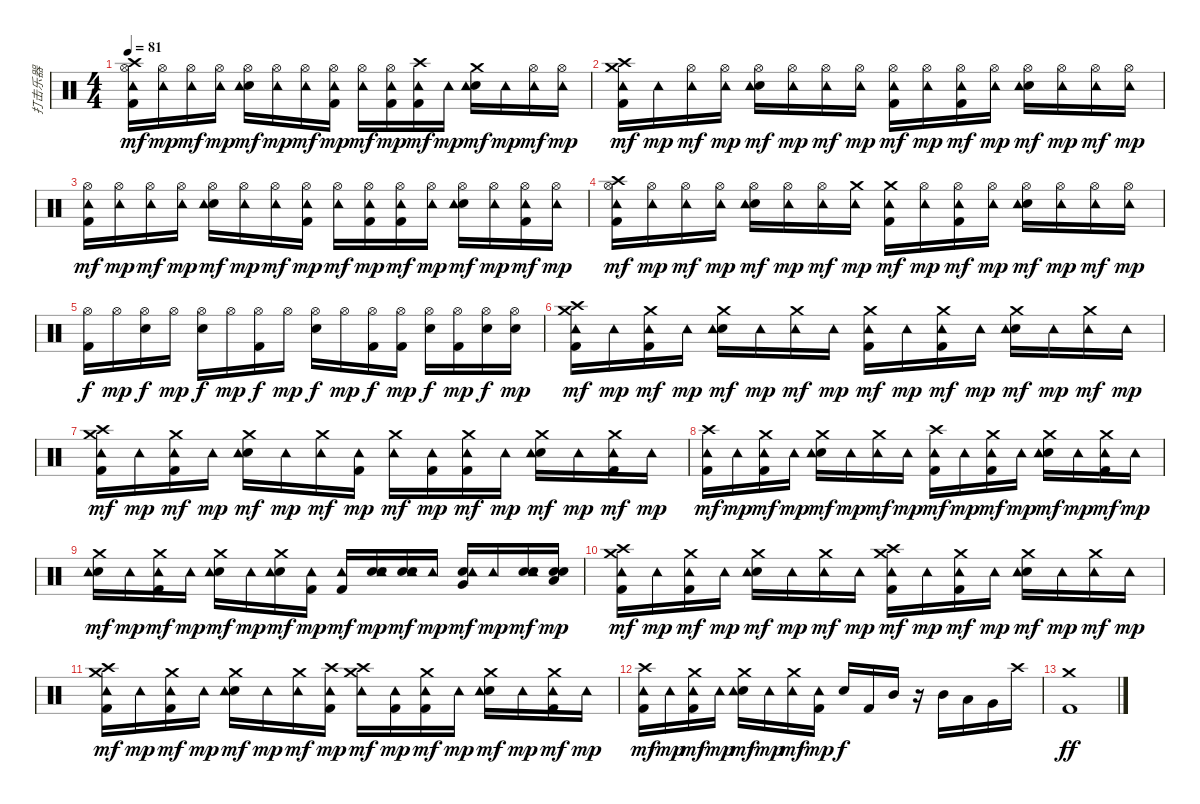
\track ("打击乐器" "打击乐器") {instrument percussion}
\staff {score}
\articulation defaults
\ts (4 4)
\tempo 81
\clef neutral
\ks c
("Crash high (hit)" "Hi-Hat (open)" "Tambourine (hit)" "Kick (hit) 2").16{dy mf} ("Hi-Hat (open)" "Tambourine (hit)").16{dy mp} ("Hi-Hat (open)" "Tambourine (hit)").16{dy mf} ("Hi-Hat (open)" "Tambourine (hit)").16{dy mp} ("Electric Snare (hit)" "Hi-Hat (open)" "Tambourine (hit)").16{dy mf} ("Hi-Hat (open)" "Tambourine (hit)").16{dy mp} ("Hi-Hat (open)" "Tambourine (hit)").16{dy mf} ("Hi-Hat (open)" "Tambourine (hit)" "Kick (hit) 2").16{dy mp} ("Hi-Hat (open)" "Tambourine (hit)").16{dy mf} ("Hi-Hat (open)" "Tambourine (hit)" "Kick (hit) 2").16{dy mp} ("Crash high (hit)" "Tambourine (hit)" "Kick (hit) 2").16{dy mf} "Tambourine (hit)".16{dy mp} ("Electric Snare (hit)" "Crash medium (hit)" "Tambourine (hit)").16{dy mf} "Tambourine (hit)".16{dy mp} ("Hi-Hat (open)" "Tambourine (hit)").16{dy mf} ("Hi-Hat (open)" "Tambourine (hit)").16{dy mp} |
("Crash high (hit)" "Crash medium (hit)" "Tambourine (hit)" "Kick (hit) 2").16{dy mf} "Tambourine (hit)".16{dy mp} ("Hi-Hat (open)" "Tambourine (hit)").16{dy mf} ("Hi-Hat (open)" "Tambourine (hit)").16{dy mp} ("Electric Snare (hit)" "Hi-Hat (open)" "Tambourine (hit)").16{dy mf} ("Hi-Hat (open)" "Tambourine (hit)").16{dy mp} ("Hi-Hat (open)" "Tambourine (hit)").16{dy mf} ("Hi-Hat (open)" "Tambourine (hit)").16{dy mp} ("Hi-Hat (open)" "Tambourine (hit)" "Kick (hit) 2").16{dy mf} ("Hi-Hat (open)" "Tambourine (hit)").16{dy mp} ("Hi-Hat (open)" "Tambourine (hit)" "Kick (hit) 2").16{dy mf} ("Hi-Hat (open)" "Tambourine (hit)").16{dy mp} ("Electric Snare (hit)" "Hi-Hat (open)" "Tambourine (hit)").16{dy mf} ("Hi-Hat (open)" "Tambourine (hit)").16{dy mp} ("Hi-Hat (open)" "Tambourine (hit)").16{dy mf} ("Hi-Hat (open)" "Tambourine (hit)").16{dy mp} |
("Hi-Hat (open)" "Tambourine (hit)" "Kick (hit) 2").16{dy mf} ("Hi-Hat (open)" "Tambourine (hit)").16{dy mp} ("Hi-Hat (open)" "Tambourine (hit)").16{dy mf} ("Hi-Hat (open)" "Tambourine (hit)").16{dy mp} ("Electric Snare (hit)" "Hi-Hat (open)" "Tambourine (hit)").16{dy mf} ("Hi-Hat (open)" "Tambourine (hit)").16{dy mp} ("Hi-Hat (open)" "Tambourine (hit)").16{dy mf} ("Hi-Hat (open)" "Tambourine (hit)" "Kick (hit) 2").16{dy mp} ("Hi-Hat (open)" "Tambourine (hit)").16{dy mf} ("Hi-Hat (open)" "Tambourine (hit)" "Kick (hit) 2").16{dy mp} ("Hi-Hat (open)" "Tambourine (hit)" "Kick (hit) 2").16{dy mf} ("Hi-Hat (open)" "Tambourine (hit)").16{dy mp} ("Electric Snare (hit)" "Hi-Hat (open)" "Tambourine (hit)").16{dy mf} ("Hi-Hat (open)" "Tambourine (hit)").16{dy mp} ("Hi-Hat (open)" "Tambourine (hit)" "Kick (hit) 2").16{dy mf} ("Hi-Hat (open)" "Tambourine (hit)").16{dy mp} |
("Crash high (hit)" "Hi-Hat (open)" "Tambourine (hit)" "Kick (hit) 2").16{dy mf} ("Hi-Hat (open)" "Tambourine (hit)").16{dy mp} ("Hi-Hat (open)" "Tambourine (hit)").16{dy mf} ("Hi-Hat (open)" "Tambourine (hit)").16{dy mp} ("Electric Snare (hit)" "Hi-Hat (open)" "Tambourine (hit)").16{dy mf} ("Hi-Hat (open)" "Tambourine (hit)").16{dy mp} ("Hi-Hat (open)" "Tambourine (hit)").16{dy mf} ("Crash medium (hit)" "Tambourine (hit)").16{dy mp} ("Crash medium (hit)" "Tambourine (hit)" "Kick (hit) 2").16{dy mf} ("Hi-Hat (open)" "Tambourine (hit)").16{dy mp} ("Hi-Hat (open)" "Tambourine (hit)" "Kick (hit) 2").16{dy mf} ("Hi-Hat (open)" "Tambourine (hit)").16{dy mp} ("Electric Snare (hit)" "Hi-Hat (open)" "Tambourine (hit)").16{dy mf} ("Hi-Hat (open)" "Tambourine (hit)").16{dy mp} ("Hi-Hat (open)" "Tambourine (hit)").16{dy mf} ("Hi-Hat (open)" "Tambourine (hit)").16{dy mp} |
("Hi-Hat (open)" "Kick (hit) 2").16{dy f} "Hi-Hat (open)".16{dy mp} ("Electric Snare (hit)" "Hi-Hat (open)").16{dy f} "Hi-Hat (open)".16{dy mp} ("Electric Snare (hit)" "Hi-Hat (open)").16{dy f} "Hi-Hat (open)".16{dy mp} ("Hi-Hat (open)" "Kick (hit) 2").16{dy f} "Hi-Hat (open)".16{dy mp} ("Electric Snare (hit)" "Hi-Hat (open)").16{dy f} "Hi-Hat (open)".16{dy mp} ("Hi-Hat (open)" "Kick (hit) 2").16{dy f} ("Hi-Hat (open)" "Kick (hit) 2").16{dy mp} ("Electric Snare (hit)" "Hi-Hat (open)").16{dy f} ("Hi-Hat (open)" "Kick (hit) 2").16{dy mp} ("Electric Snare (hit)" "Hi-Hat (open)").16{dy f} ("Electric Snare (hit)" "Hi-Hat (open)").16{dy mp} |
("Crash high (hit)" "Crash medium (hit)" "Tambourine (hit)" "Kick (hit) 2").16{dy mf} "Tambourine (hit)".16{dy mp} ("Crash medium (hit)" "Tambourine (hit)" "Kick (hit) 2").16{dy mf} "Tambourine (hit)".16{dy mp} ("Electric Snare (hit)" "Crash medium (hit)" "Tambourine (hit)").16{dy mf} "Tambourine (hit)".16{dy mp} ("Crash medium (hit)" "Tambourine (hit)").16{dy mf} "Tambourine (hit)".16{dy mp} ("Crash medium (hit)" "Tambourine (hit)" "Kick (hit) 2").16{dy mf} "Tambourine (hit)".16{dy mp} ("Crash medium (hit)" "Tambourine (hit)" "Kick (hit) 2").16{dy mf} "Tambourine (hit)".16{dy mp} ("Electric Snare (hit)" "Crash medium (hit)" "Tambourine (hit)").16{dy mf} "Tambourine (hit)".16{dy mp} ("Crash medium (hit)" "Tambourine (hit)").16{dy mf} "Tambourine (hit)".16{dy mp} |
("Crash high (hit)" "Crash medium (hit)" "Tambourine (hit)" "Kick (hit) 2").16{dy mf} "Tambourine (hit)".16{dy mp} ("Crash medium (hit)" "Tambourine (hit)" "Kick (hit) 2").16{dy mf} "Tambourine (hit)".16{dy mp} ("Electric Snare (hit)" "Crash medium (hit)" "Tambourine (hit)").16{dy mf} "Tambourine (hit)".16{dy mp} ("Crash medium (hit)" "Tambourine (hit)").16{dy mf} ("Tambourine (hit)" "Kick (hit) 2").16{dy mp} ("Crash medium (hit)" "Tambourine (hit)").16{dy mf} ("Tambourine (hit)" "Kick (hit) 2").16{dy mp} ("Crash medium (hit)" "Tambourine (hit)" "Kick (hit) 2").16{dy mf} "Tambourine (hit)".16{dy mp} ("Electric Snare (hit)" "Crash medium (hit)" "Tambourine (hit)").16{dy mf} "Tambourine (hit)".16{dy mp} ("Crash medium (hit)" "Tambourine (hit)" "Kick (hit) 2").16{dy mf} "Tambourine (hit)".16{dy mp} |
("Crash high (hit)" "Tambourine (hit)" "Kick (hit) 2").16{dy mf} "Tambourine (hit)".16{dy mp} ("Crash medium (hit)" "Tambourine (hit)" "Kick (hit) 2").16{dy mf} "Tambourine (hit)".16{dy mp} ("Electric Snare (hit)" "Crash medium (hit)" "Tambourine (hit)").16{dy mf} "Tambourine (hit)".16{dy mp} ("Crash medium (hit)" "Tambourine (hit)").16{dy mf} "Tambourine (hit)".16{dy mp} ("Crash high (hit)" "Tambourine (hit)" "Kick (hit) 2").16{dy mf} "Tambourine (hit)".16{dy mp} ("Crash medium (hit)" "Tambourine (hit)" "Kick (hit) 2").16{dy mf} "Tambourine (hit)".16{dy mp} ("Electric Snare (hit)" "Crash medium (hit)" "Tambourine (hit)").16{dy mf} "Tambourine (hit)".16{dy mp} ("Crash medium (hit)" "Tambourine (hit)" "Kick (hit) 2").16{dy mf} "Tambourine (hit)".16{dy mp} |
("Electric Snare (hit)" "Crash medium (hit)" "Tambourine (hit)").16{dy mf} "Tambourine (hit)".16{dy mp} ("Crash medium (hit)" "Tambourine (hit)" "Kick (hit) 2").16{dy mf} "Tambourine (hit)".16{dy mp} ("Electric Snare (hit)" "Crash medium (hit)" "Tambourine (hit)").16{dy mf} "Tambourine (hit)".16{dy mp} ("Electric Snare (hit)" "Crash medium (hit)" "Tambourine (hit)").16{dy mf} ("Tambourine (hit)" "Kick (hit) 2").16{dy mp} ("Tambourine (hit)" "Kick (hit) 2").16{dy mf} ("Electric Snare (hit)" "Electric Snare (hit)" "Tambourine (hit)").16{dy mp} ("Electric Snare (hit)" "Electric Snare (hit)" "Tambourine (hit)").16{dy mf} "Tambourine (hit)".16{dy mp} ("Electric Snare (hit)" "Very Low Tom (hit)" "Tambourine (hit)").16{dy mf} "Tambourine (hit)".16{dy mp} ("Electric Snare (hit)" "Electric Snare (hit)" "Tambourine (hit)").16{dy mf} ("Electric Snare (hit)" "Electric Snare (hit)" "Low Tom (hit)").16{dy mp} |
("Crash high (hit)" "Crash medium (hit)" "Tambourine (hit)" "Kick (hit) 2").16{dy mf} "Tambourine (hit)".16{dy mp} ("Crash medium (hit)" "Tambourine (hit)" "Kick (hit) 2").16{dy mf} "Tambourine (hit)".16{dy mp} ("Electric Snare (hit)" "Crash medium (hit)" "Tambourine (hit)").16{dy mf} "Tambourine (hit)".16{dy mp} ("Crash medium (hit)" "Tambourine (hit)").16{dy mf} "Tambourine (hit)".16{dy mp} ("Crash high (hit)" "Crash medium (hit)" "Tambourine (hit)" "Kick (hit) 2").16{dy mf} "Tambourine (hit)".16{dy mp} ("Crash medium (hit)" "Tambourine (hit)" "Kick (hit) 2").16{dy mf} "Tambourine (hit)".16{dy mp} ("Electric Snare (hit)" "Crash medium (hit)" "Tambourine (hit)").16{dy mf} "Tambourine (hit)".16{dy mp} ("Crash medium (hit)" "Tambourine (hit)").16{dy mf} "Tambourine (hit)".16{dy mp} |
("Crash high (hit)" "Crash medium (hit)" "Tambourine (hit)" "Kick (hit) 2").16{dy mf} "Tambourine (hit)".16{dy mp} ("Crash medium (hit)" "Tambourine (hit)" "Kick (hit) 2").16{dy mf} "Tambourine (hit)".16{dy mp} ("Electric Snare (hit)" "Crash medium (hit)" "Tambourine (hit)").16{dy mf} "Tambourine (hit)".16{dy mp} ("Crash medium (hit)" "Tambourine (hit)").16{dy mf} ("Crash high (hit)" "Tambourine (hit)" "Kick (hit) 2").16{dy mp} ("Crash high (hit)" "Crash medium (hit)" "Tambourine (hit)").16{dy mf} ("Tambourine (hit)" "Kick (hit) 2").16{dy mp} ("Crash medium (hit)" "Tambourine (hit)" "Kick (hit) 2").16{dy mf} "Tambourine (hit)".16{dy mp} ("Electric Snare (hit)" "Crash medium (hit)" "Tambourine (hit)").16{dy mf} "Tambourine (hit)".16{dy mp} ("Crash medium (hit)" "Tambourine (hit)" "Kick (hit) 2").16{dy mf} "Tambourine (hit)".16{dy mp} |
("Crash high (hit)" "Tambourine (hit)" "Kick (hit) 2").16{dy mf} "Tambourine (hit)".16{dy mp} ("Crash medium (hit)" "Tambourine (hit)" "Kick (hit) 2").16{dy mf} "Tambourine (hit)".16{dy mp} ("Electric Snare (hit)" "Crash medium (hit)" "Tambourine (hit)").16{dy mf} "Tambourine (hit)".16{dy mp} ("Crash medium (hit)" "Tambourine (hit)").16{dy mf} ("Tambourine (hit)" "Kick (hit) 2").16{dy mp} "Electric Snare (hit)".16{dy f} "Kick (hit) 2".16 "Mid Tom (hit)".16 r.16 "Mid Tom (hit)".16 "Low Tom (hit)".16 "Very Low Tom (hit)".16 "Crash high (hit)".16 |
("Crash medium (hit)" "Kick (hit) 2").1{dy ff}
